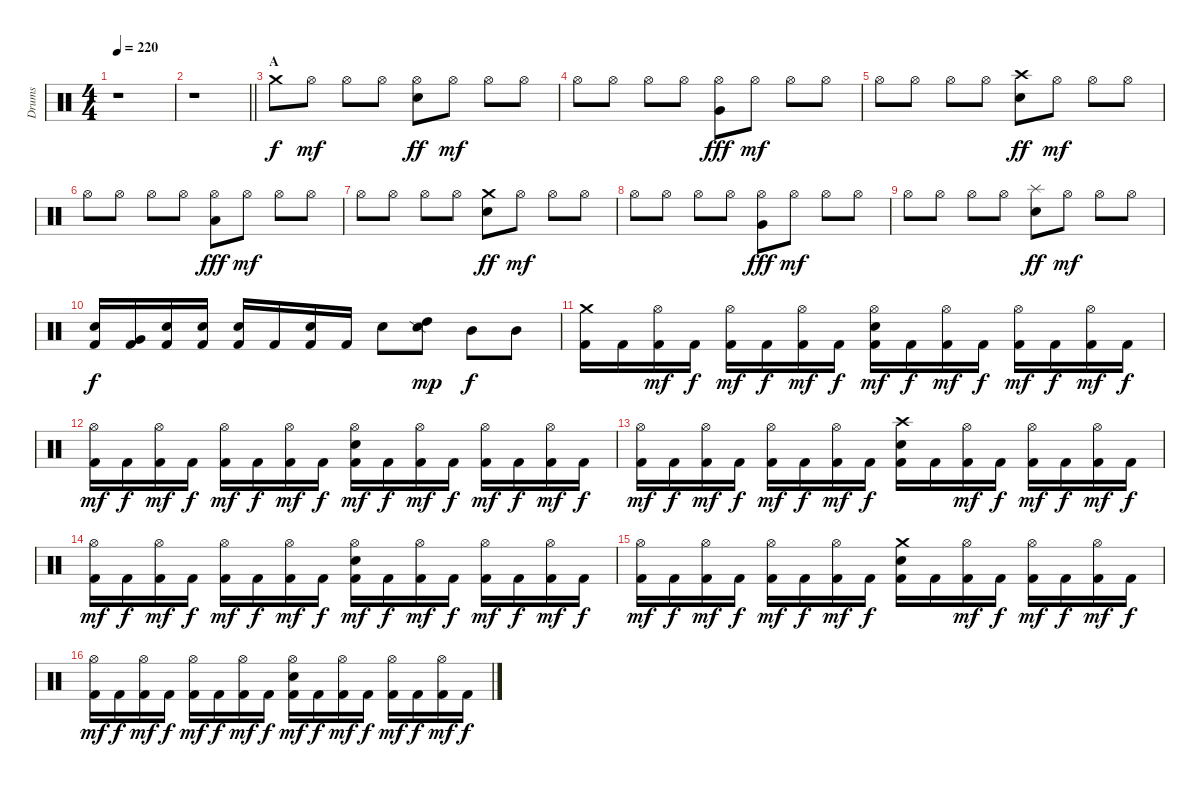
\track ("Drums" "Drums") {instrument percussion}
\staff {score}
\articulation defaults
\ts (4 4)
\tempo 220
\clef neutral
\ks c
r.1{dy f} |
\barLineRight lightlight
r.1 |
\section ("" "A")
"Crash medium (hit)".8 "Hi-Hat (open)".8{dy mf} "Hi-Hat (open)".8 "Hi-Hat (open)".8 ("Hi-Hat (open)" "Electric Snare (hit)").8{dy ff} "Hi-Hat (open)".8{dy mf} "Hi-Hat (open)".8 "Hi-Hat (open)".8 |
"Hi-Hat (open)".8 "Hi-Hat (open)".8 "Hi-Hat (open)".8 "Hi-Hat (open)".8 ("Hi-Hat (open)" "Very Low Tom (hit)").8{dy fff} "Hi-Hat (open)".8{dy mf} "Hi-Hat (open)".8 "Hi-Hat (open)".8 |
"Hi-Hat (open)".8 "Hi-Hat (open)".8 "Hi-Hat (open)".8 "Hi-Hat (open)".8 ("Crash high (hit)" "Electric Snare (hit)").8{dy ff} "Hi-Hat (open)".8{dy mf} "Hi-Hat (open)".8 "Hi-Hat (open)".8 |
"Hi-Hat (open)".8 "Hi-Hat (open)".8 "Hi-Hat (open)".8 "Hi-Hat (open)".8 ("Hi-Hat (open)" "Low Floor Tom (hit)").8{dy fff} "Hi-Hat (open)".8{dy mf} "Hi-Hat (open)".8 "Hi-Hat (open)".8 |
"Hi-Hat (open)".8 "Hi-Hat (open)".8 "Hi-Hat (open)".8 "Hi-Hat (open)".8 ("Crash medium (hit)" "Electric Snare (hit)").8{dy ff} "Hi-Hat (open)".8{dy mf} "Hi-Hat (open)".8 "Hi-Hat (open)".8 |
"Hi-Hat (open)".8 "Hi-Hat (open)".8 "Hi-Hat (open)".8 "Hi-Hat (open)".8 ("Hi-Hat (open)" "Very Low Tom (hit)").8{dy fff} "Hi-Hat (open)".8{dy mf} "Hi-Hat (open)".8 "Hi-Hat (open)".8 |
"Hi-Hat (open)".8 "Hi-Hat (open)".8 "Hi-Hat (open)".8 "Hi-Hat (open)".8 ("Splash (hit)" "Electric Snare (hit)").8{dy ff} "Hi-Hat (open)".8{dy mf} "Hi-Hat (open)".8 "Hi-Hat (open)".8 |
("Electric Snare (hit)" "Kick (hit) 2").16{dy f} ("Very Low Tom (hit)" "Kick (hit) 2").16 ("Electric Snare (hit)" "Kick (hit) 2").16 ("Electric Snare (hit)" "Kick (hit) 2").16 ("Electric Snare (hit)" "Kick (hit) 2").16 "Kick (hit) 2".16 ("Electric Snare (hit)" "Kick (hit) 2").16 "Kick (hit) 2".16 "Electric Snare (hit)".8 ("High Tom (hit)" "Snare (side stick) 2").8{dy mp} "Mid Tom (hit)".8{dy f} "Mid Tom (hit)".8 |
("Crash medium (hit)" "Kick (hit) 2").16 "Kick (hit) 2".16 ("Hi-Hat (open)" "Kick (hit) 2").16{dy mf} "Kick (hit) 2".16{dy f} ("Hi-Hat (open)" "Kick (hit) 2").16{dy mf} "Kick (hit) 2".16{dy f} ("Hi-Hat (open)" "Kick (hit) 2").16{dy mf} "Kick (hit) 2".16{dy f} ("Hi-Hat (open)" "Electric Snare (hit)" "Kick (hit) 2").16{dy mf} "Kick (hit) 2".16{dy f} ("Hi-Hat (open)" "Kick (hit) 2").16{dy mf} "Kick (hit) 2".16{dy f} ("Hi-Hat (open)" "Kick (hit) 2").16{dy mf} "Kick (hit) 2".16{dy f} ("Hi-Hat (open)" "Kick (hit) 2").16{dy mf} "Kick (hit) 2".16{dy f} |
("Hi-Hat (open)" "Kick (hit) 2").16{dy mf} "Kick (hit) 2".16{dy f} ("Hi-Hat (open)" "Kick (hit) 2").16{dy mf} "Kick (hit) 2".16{dy f} ("Hi-Hat (open)" "Kick (hit) 2").16{dy mf} "Kick (hit) 2".16{dy f} ("Hi-Hat (open)" "Kick (hit) 2").16{dy mf} "Kick (hit) 2".16{dy f} ("Hi-Hat (open)" "Electric Snare (hit)" "Kick (hit) 2").16{dy mf} "Kick (hit) 2".16{dy f} ("Hi-Hat (open)" "Kick (hit) 2").16{dy mf} "Kick (hit) 2".16{dy f} ("Hi-Hat (open)" "Kick (hit) 2").16{dy mf} "Kick (hit) 2".16{dy f} ("Hi-Hat (open)" "Kick (hit) 2").16{dy mf} "Kick (hit) 2".16{dy f} |
("Hi-Hat (open)" "Kick (hit) 2").16{dy mf} "Kick (hit) 2".16{dy f} ("Hi-Hat (open)" "Kick (hit) 2").16{dy mf} "Kick (hit) 2".16{dy f} ("Hi-Hat (open)" "Kick (hit) 2").16{dy mf} "Kick (hit) 2".16{dy f} ("Hi-Hat (open)" "Kick (hit) 2").16{dy mf} "Kick (hit) 2".16{dy f} ("Crash high (hit)" "Electric Snare (hit)" "Kick (hit) 2").16 "Kick (hit) 2".16 ("Hi-Hat (open)" "Kick (hit) 2").16{dy mf} "Kick (hit) 2".16{dy f} ("Hi-Hat (open)" "Kick (hit) 2").16{dy mf} "Kick (hit) 2".16{dy f} ("Hi-Hat (open)" "Kick (hit) 2").16{dy mf} "Kick (hit) 2".16{dy f} |
("Hi-Hat (open)" "Kick (hit) 2").16{dy mf} "Kick (hit) 2".16{dy f} ("Hi-Hat (open)" "Kick (hit) 2").16{dy mf} "Kick (hit) 2".16{dy f} ("Hi-Hat (open)" "Kick (hit) 2").16{dy mf} "Kick (hit) 2".16{dy f} ("Hi-Hat (open)" "Kick (hit) 2").16{dy mf} "Kick (hit) 2".16{dy f} ("Hi-Hat (open)" "Electric Snare (hit)" "Kick (hit) 2").16{dy mf} "Kick (hit) 2".16{dy f} ("Hi-Hat (open)" "Kick (hit) 2").16{dy mf} "Kick (hit) 2".16{dy f} ("Hi-Hat (open)" "Kick (hit) 2").16{dy mf} "Kick (hit) 2".16{dy f} ("Hi-Hat (open)" "Kick (hit) 2").16{dy mf} "Kick (hit) 2".16{dy f} |
("Hi-Hat (open)" "Kick (hit) 2").16{dy mf} "Kick (hit) 2".16{dy f} ("Hi-Hat (open)" "Kick (hit) 2").16{dy mf} "Kick (hit) 2".16{dy f} ("Hi-Hat (open)" "Kick (hit) 2").16{dy mf} "Kick (hit) 2".16{dy f} ("Hi-Hat (open)" "Kick (hit) 2").16{dy mf} "Kick (hit) 2".16{dy f} ("Crash medium (hit)" "Electric Snare (hit)" "Kick (hit) 2").16 "Kick (hit) 2".16 ("Hi-Hat (open)" "Kick (hit) 2").16{dy mf} "Kick (hit) 2".16{dy f} ("Hi-Hat (open)" "Kick (hit) 2").16{dy mf} "Kick (hit) 2".16{dy f} ("Hi-Hat (open)" "Kick (hit) 2").16{dy mf} "Kick (hit) 2".16{dy f} |
("Hi-Hat (open)" "Kick (hit) 2").16{dy mf} "Kick (hit) 2".16{dy f} ("Hi-Hat (open)" "Kick (hit) 2").16{dy mf} "Kick (hit) 2".16{dy f} ("Hi-Hat (open)" "Kick (hit) 2").16{dy mf} "Kick (hit) 2".16{dy f} ("Hi-Hat (open)" "Kick (hit) 2").16{dy mf} "Kick (hit) 2".16{dy f} ("Hi-Hat (open)" "Electric Snare (hit)" "Kick (hit) 2").16{dy mf} "Kick (hit) 2".16{dy f} ("Hi-Hat (open)" "Kick (hit) 2").16{dy mf} "Kick (hit) 2".16{dy f} ("Hi-Hat (open)" "Kick (hit) 2").16{dy mf} "Kick (hit) 2".16{dy f} ("Hi-Hat (open)" "Kick (hit) 2").16{dy mf} "Kick (hit) 2".16{dy f}
